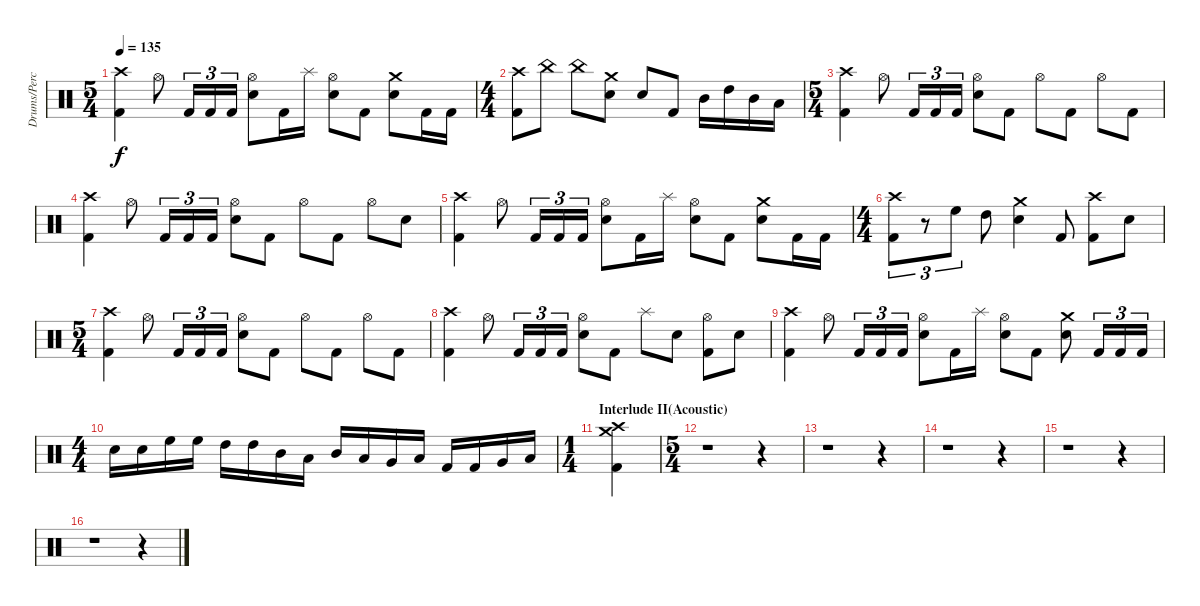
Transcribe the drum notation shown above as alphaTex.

\track ("Drums/Percussion" "Drums/Perc") {instrument percussion}
\staff {score}
\articulation defaults
\ts (5 4)
\tempo 135
\clef neutral
\ks c
("Crash high (hit)" "Kick (hit) 2").4{dy f} "Hi-Hat (open)".8 "Kick (hit) 2".16{tu (3 2)} "Kick (hit) 2".16{tu (3 2)} "Kick (hit) 2".16{tu (3 2)} ("Hi-Hat (open)" "Snare (hit) 2").8 "Kick (hit) 2".16 "Splash (hit)".16 ("Hi-Hat (open)" "Snare (hit) 2").8 "Kick (hit) 2".8 ("Crash medium (hit)" "Snare (hit) 2").8 "Kick (hit) 2".16 "Kick (hit) 2".16 |
\ts (4 4)
("Crash high (hit)" "Kick (hit) 2").8 "China (hit)".8 "China (hit)".8 ("Crash medium (hit)" "Snare (hit) 2").8 "Snare (hit) 2".8 "Kick (hit) 2".8 "Mid Tom (hit)".16 "High Tom (hit)".16 "Mid Tom (hit)".16 "Low Tom (hit)".16 |
\ts (5 4)
("Crash high (hit)" "Kick (hit) 2").4 "Hi-Hat (open)".8 "Kick (hit) 2".16{tu (3 2)} "Kick (hit) 2".16{tu (3 2)} "Kick (hit) 2".16{tu (3 2)} ("Hi-Hat (open)" "Snare (hit) 2").8 "Kick (hit) 2".8 "Hi-Hat (open)".8 "Kick (hit) 2".8 "Hi-Hat (open)".8 "Kick (hit) 2".8 |
("Crash high (hit)" "Kick (hit) 2").4 "Hi-Hat (open)".8 "Kick (hit) 2".16{tu (3 2)} "Kick (hit) 2".16{tu (3 2)} "Kick (hit) 2".16{tu (3 2)} ("Hi-Hat (open)" "Snare (hit) 2").8 "Kick (hit) 2".8 "Hi-Hat (open)".8 "Kick (hit) 2".8 "Hi-Hat (open)".8 "Snare (hit) 2".8 |
("Crash high (hit)" "Kick (hit) 2").4 "Hi-Hat (open)".8 "Kick (hit) 2".16{tu (3 2)} "Kick (hit) 2".16{tu (3 2)} "Kick (hit) 2".16{tu (3 2)} ("Hi-Hat (open)" "Snare (hit) 2").8 "Kick (hit) 2".16 "Splash (hit)".16 ("Hi-Hat (open)" "Snare (hit) 2").8 "Kick (hit) 2".8 ("Crash medium (hit)" "Snare (hit) 2").8 "Kick (hit) 2".16 "Kick (hit) 2".16 |
\ts (4 4)
("Crash high (hit)" "Kick (hit) 2").8{tu (3 2)} r.8{tu (3 2)} "High Floor Tom (hit)".8{tu (3 2)} "High Tom (hit)".8 ("Crash medium (hit)" "Snare (hit) 2").4 "Kick (hit) 2".8 ("Crash high (hit)" "Kick (hit) 2").8 "Snare (hit) 2".8 |
\ts (5 4)
("Crash high (hit)" "Kick (hit) 2").4 "Hi-Hat (open)".8 "Kick (hit) 2".16{tu (3 2)} "Kick (hit) 2".16{tu (3 2)} "Kick (hit) 2".16{tu (3 2)} ("Hi-Hat (open)" "Snare (hit) 2").8 "Kick (hit) 2".8 "Hi-Hat (open)".8 "Kick (hit) 2".8 "Hi-Hat (open)".8 "Kick (hit) 2".8 |
("Crash high (hit)" "Kick (hit) 2").4 "Hi-Hat (open)".8 "Kick (hit) 2".16{tu (3 2)} "Kick (hit) 2".16{tu (3 2)} "Kick (hit) 2".16{tu (3 2)} ("Hi-Hat (open)" "Snare (hit) 2").8 "Kick (hit) 2".8 "Splash (hit)".8 "Snare (hit) 2".8 ("Hi-Hat (open)" "Kick (hit) 2").8 "Snare (hit) 2".8 |
("Crash high (hit)" "Kick (hit) 2").4 "Hi-Hat (open)".8 "Kick (hit) 2".16{tu (3 2)} "Kick (hit) 2".16{tu (3 2)} "Kick (hit) 2".16{tu (3 2)} ("Hi-Hat (open)" "Snare (hit) 2").8 "Kick (hit) 2".16 "Splash (hit)".16 ("Hi-Hat (open)" "Snare (hit) 2").8 "Kick (hit) 2".8 ("Crash medium (hit)" "Snare (hit) 2").8 "Kick (hit) 2".16{tu (3 2)} "Kick (hit) 2".16{tu (3 2)} "Kick (hit) 2".16{tu (3 2)} |
\ts (4 4)
"Snare (hit) 2".16 "Snare (hit) 2".16 "High Floor Tom (hit)".16 "High Floor Tom (hit)".16 "High Tom (hit)".16 "High Tom (hit)".16 "Mid Tom (hit)".16 "Low Tom (hit)".16 "Mid Tom (hit)".16 "Low Tom (hit)".16 "Very Low Tom (hit)".16 "Low Floor Tom (hit)".16 "Kick (hit) 2".16 "Kick (hit) 2".16 "Very Low Tom (hit)".16 "Low Floor Tom (hit)".16 |
\ts (1 4)
\section ("" "Interlude II(Acoustic)")
("Crash medium (hit)" "Crash high (hit)" "Kick (hit) 2").4 |
\ts (5 4)
r.1 r.4 |
r.1 r.4 |
r.1 r.4 |
r.1 r.4 |
r.1 r.4
